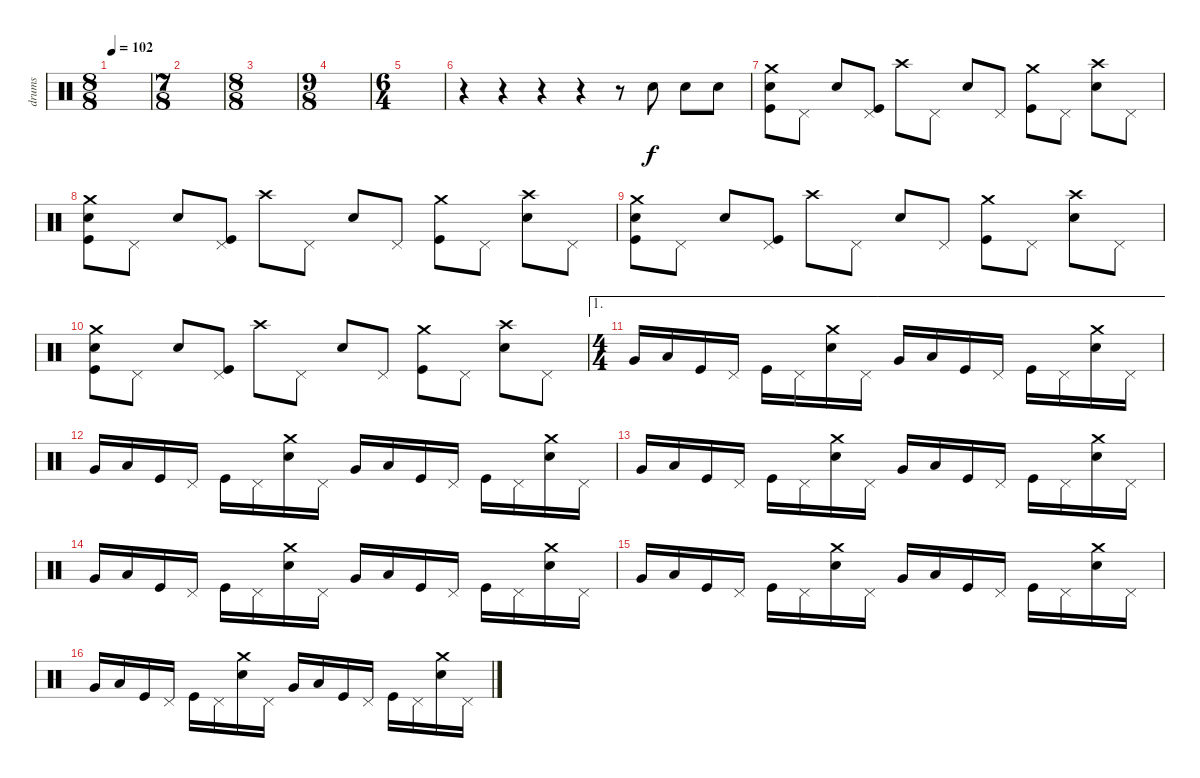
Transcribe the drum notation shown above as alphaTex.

\track ("drums" "drums") {instrument percussion}
\staff {score}
\articulation defaults
\ts (8 8)
\tempo 102
\clef neutral
\ks c
|
\ts (7 8)
|
\ts (8 8)
|
\ts (9 8)
|
\ts (6 4)
|
r.4 r.4 r.4 r.4 r.8 "Snare (hit) 2".8 "Snare (hit) 2".8 "Snare (hit) 2".8 |
("Snare (hit) 2" "Kick (hit)" "Crash medium (hit)").8 "Pedal Hi-Hat (hit)".8 "Snare (hit) 2".8 ("Kick (hit)" "Pedal Hi-Hat (hit)").8 "Crash high (hit)".8 "Pedal Hi-Hat (hit)".8 "Snare (hit) 2".8 "Pedal Hi-Hat (hit)".8 ("Kick (hit)" "Crash medium (hit)").8 "Pedal Hi-Hat (hit)".8 ("Snare (hit) 2" "Crash high (hit)").8 "Pedal Hi-Hat (hit)".8 |
("Snare (hit) 2" "Kick (hit)" "Crash medium (hit)").8 "Pedal Hi-Hat (hit)".8 "Snare (hit) 2".8 ("Kick (hit)" "Pedal Hi-Hat (hit)").8 "Crash high (hit)".8 "Pedal Hi-Hat (hit)".8 "Snare (hit) 2".8 "Pedal Hi-Hat (hit)".8 ("Kick (hit)" "Crash medium (hit)").8 "Pedal Hi-Hat (hit)".8 ("Snare (hit) 2" "Crash high (hit)").8 "Pedal Hi-Hat (hit)".8 |
("Snare (hit) 2" "Kick (hit)" "Crash medium (hit)").8 "Pedal Hi-Hat (hit)".8 "Snare (hit) 2".8 ("Kick (hit)" "Pedal Hi-Hat (hit)").8 "Crash high (hit)".8 "Pedal Hi-Hat (hit)".8 "Snare (hit) 2".8 "Pedal Hi-Hat (hit)".8 ("Kick (hit)" "Crash medium (hit)").8 "Pedal Hi-Hat (hit)".8 ("Snare (hit) 2" "Crash high (hit)").8 "Pedal Hi-Hat (hit)".8 |
("Snare (hit) 2" "Kick (hit)" "Crash medium (hit)").8 "Pedal Hi-Hat (hit)".8 "Snare (hit) 2".8 ("Kick (hit)" "Pedal Hi-Hat (hit)").8 "Crash high (hit)".8 "Pedal Hi-Hat (hit)".8 "Snare (hit) 2".8 "Pedal Hi-Hat (hit)".8 ("Kick (hit)" "Crash medium (hit)").8 "Pedal Hi-Hat (hit)".8 ("Snare (hit) 2" "Crash high (hit)").8 "Pedal Hi-Hat (hit)".8 |
\ae 1
\ts (4 4)
"Very Low Tom (hit)".16 "Low Tom (hit)".16 "Kick (hit)".16 "Pedal Hi-Hat (hit)".16 "Kick (hit)".16 "Pedal Hi-Hat (hit)".16 ("Crash medium (hit)" "Snare (hit) 2").16 "Pedal Hi-Hat (hit)".16 "Very Low Tom (hit)".16 "Low Tom (hit)".16 "Kick (hit)".16 "Pedal Hi-Hat (hit)".16 "Kick (hit)".16 "Pedal Hi-Hat (hit)".16 ("Crash medium (hit)" "Snare (hit) 2").16 "Pedal Hi-Hat (hit)".16 |
"Very Low Tom (hit)".16 "Low Tom (hit)".16 "Kick (hit)".16 "Pedal Hi-Hat (hit)".16 "Kick (hit)".16 "Pedal Hi-Hat (hit)".16 ("Crash medium (hit)" "Snare (hit) 2").16 "Pedal Hi-Hat (hit)".16 "Very Low Tom (hit)".16 "Low Tom (hit)".16 "Kick (hit)".16 "Pedal Hi-Hat (hit)".16 "Kick (hit)".16 "Pedal Hi-Hat (hit)".16 ("Crash medium (hit)" "Snare (hit) 2").16 "Pedal Hi-Hat (hit)".16 |
"Very Low Tom (hit)".16 "Low Tom (hit)".16 "Kick (hit)".16 "Pedal Hi-Hat (hit)".16 "Kick (hit)".16 "Pedal Hi-Hat (hit)".16 ("Crash medium (hit)" "Snare (hit) 2").16 "Pedal Hi-Hat (hit)".16 "Very Low Tom (hit)".16 "Low Tom (hit)".16 "Kick (hit)".16 "Pedal Hi-Hat (hit)".16 "Kick (hit)".16 "Pedal Hi-Hat (hit)".16 ("Crash medium (hit)" "Snare (hit) 2").16 "Pedal Hi-Hat (hit)".16 |
"Very Low Tom (hit)".16 "Low Tom (hit)".16 "Kick (hit)".16 "Pedal Hi-Hat (hit)".16 "Kick (hit)".16 "Pedal Hi-Hat (hit)".16 ("Crash medium (hit)" "Snare (hit) 2").16 "Pedal Hi-Hat (hit)".16 "Very Low Tom (hit)".16 "Low Tom (hit)".16 "Kick (hit)".16 "Pedal Hi-Hat (hit)".16 "Kick (hit)".16 "Pedal Hi-Hat (hit)".16 ("Crash medium (hit)" "Snare (hit) 2").16 "Pedal Hi-Hat (hit)".16 |
"Very Low Tom (hit)".16 "Low Tom (hit)".16 "Kick (hit)".16 "Pedal Hi-Hat (hit)".16 "Kick (hit)".16 "Pedal Hi-Hat (hit)".16 ("Crash medium (hit)" "Snare (hit) 2").16 "Pedal Hi-Hat (hit)".16 "Very Low Tom (hit)".16 "Low Tom (hit)".16 "Kick (hit)".16 "Pedal Hi-Hat (hit)".16 "Kick (hit)".16 "Pedal Hi-Hat (hit)".16 ("Crash medium (hit)" "Snare (hit) 2").16 "Pedal Hi-Hat (hit)".16 |
"Very Low Tom (hit)".16 "Low Tom (hit)".16 "Kick (hit)".16 "Pedal Hi-Hat (hit)".16 "Kick (hit)".16 "Pedal Hi-Hat (hit)".16 ("Crash medium (hit)" "Snare (hit) 2").16 "Pedal Hi-Hat (hit)".16 "Very Low Tom (hit)".16 "Low Tom (hit)".16 "Kick (hit)".16 "Pedal Hi-Hat (hit)".16 "Kick (hit)".16 "Pedal Hi-Hat (hit)".16 ("Crash medium (hit)" "Snare (hit) 2").16 "Pedal Hi-Hat (hit)".16
